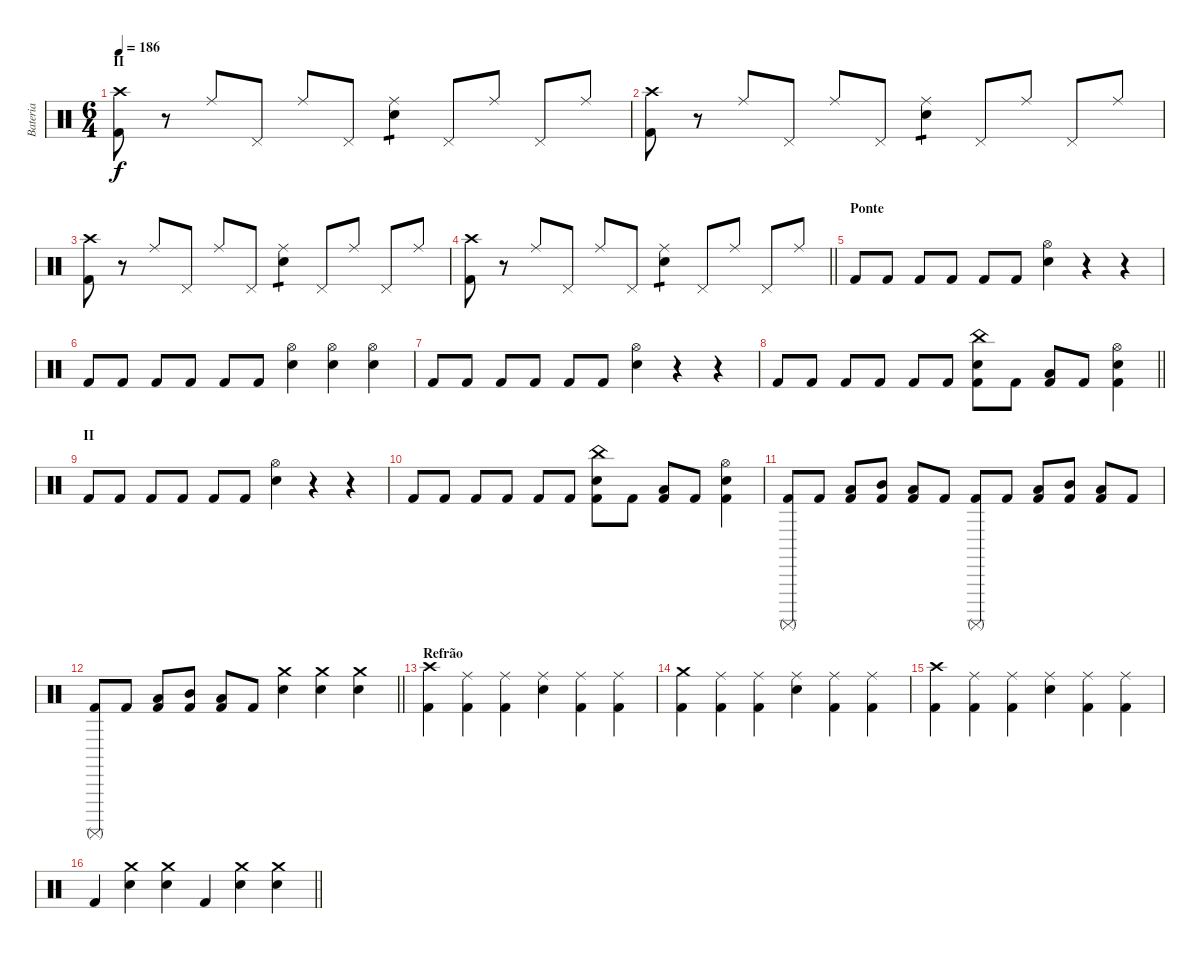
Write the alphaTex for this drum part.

\track ("Bateria" "Bateria") {instrument percussion}
\staff {score}
\articulation defaults
\ts (6 4)
\section ("" "II")
\tempo 186
\clef neutral
\ks c
("Kick (hit) 2" "Crash high (hit)").8{dy f} r.8 "Ride (middle)".8 "Pedal Hi-Hat (hit)".8 "Ride (middle)".8 "Pedal Hi-Hat (hit)".8 ("Electric Snare (hit)" "Ride (middle)").4{tp 1} "Pedal Hi-Hat (hit)".8 "Ride (middle)".8 "Pedal Hi-Hat (hit)".8 "Ride (middle)".8 |
("Kick (hit) 2" "Crash high (hit)").8 r.8 "Ride (middle)".8 "Pedal Hi-Hat (hit)".8 "Ride (middle)".8 "Pedal Hi-Hat (hit)".8 ("Electric Snare (hit)" "Ride (middle)").4{tp 1} "Pedal Hi-Hat (hit)".8 "Ride (middle)".8 "Pedal Hi-Hat (hit)".8 "Ride (middle)".8 |
("Kick (hit) 2" "Crash high (hit)").8 r.8 "Ride (middle)".8 "Pedal Hi-Hat (hit)".8 "Ride (middle)".8 "Pedal Hi-Hat (hit)".8 ("Electric Snare (hit)" "Ride (middle)").4{tp 1} "Pedal Hi-Hat (hit)".8 "Ride (middle)".8 "Pedal Hi-Hat (hit)".8 "Ride (middle)".8 |
\barLineRight lightlight
("Kick (hit) 2" "Crash high (hit)").8 r.8 "Ride (middle)".8 "Pedal Hi-Hat (hit)".8 "Ride (middle)".8 "Pedal Hi-Hat (hit)".8 ("Electric Snare (hit)" "Ride (middle)").4{tp 1} "Pedal Hi-Hat (hit)".8 "Ride (middle)".8 "Pedal Hi-Hat (hit)".8 "Ride (middle)".8 |
\section ("" "Ponte")
"Kick (hit) 2".8 "Kick (hit) 2".8 "Kick (hit) 2".8 "Kick (hit) 2".8 "Kick (hit) 2".8 "Kick (hit) 2".8 ("Electric Snare (hit)" "Hi-Hat (open)").4 r.4 r.4 |
"Kick (hit) 2".8 "Kick (hit) 2".8 "Kick (hit) 2".8 "Kick (hit) 2".8 "Kick (hit) 2".8 "Kick (hit) 2".8 ("Electric Snare (hit)" "Hi-Hat (open)").4 ("Electric Snare (hit)" "Hi-Hat (open)").4 ("Electric Snare (hit)" "Hi-Hat (open)").4 |
"Kick (hit) 2".8 "Kick (hit) 2".8 "Kick (hit) 2".8 "Kick (hit) 2".8 "Kick (hit) 2".8 "Kick (hit) 2".8 ("Electric Snare (hit)" "Hi-Hat (open)").4 r.4 r.4 |
\barLineRight lightlight "Kick (hit) 2".8 "Kick (hit) 2".8 "Kick (hit) 2".8 "Kick (hit) 2".8 "Kick (hit) 2".8 "Kick (hit) 2".8
("Kick (hit) 2" "Electric Snare (hit)" "China (hit)").8 "Kick (hit) 2".8 ("Kick (hit) 2" "Low Tom (hit)").8 "Kick (hit) 2".8 ("Kick (hit) 2" "Electric Snare (hit)" "Hi-Hat (open)").4 |
\section ("" "II")
"Kick (hit) 2".8 "Kick (hit) 2".8 "Kick (hit) 2".8 "Kick (hit) 2".8 "Kick (hit) 2".8 "Kick (hit) 2".8 ("Electric Snare (hit)" "Hi-Hat (open)").4 r.4 r.4 |
"Kick (hit) 2".8 "Kick (hit) 2".8 "Kick (hit) 2".8 "Kick (hit) 2".8 "Kick (hit) 2".8 "Kick (hit) 2".8 ("Kick (hit) 2" "Electric Snare (hit)" "China (hit)").8 "Kick (hit) 2".8 ("Kick (hit) 2" "Low Tom (hit)").8 "Kick (hit) 2".8 ("Kick (hit) 2" "Electric Snare (hit)" "Hi-Hat (open)").4 |
("Kick (hit) 2" "Surdo (mute)").8 "Kick (hit) 2".8 ("Kick (hit) 2" "Low Tom (hit)").8 ("Kick (hit) 2" "Mid Tom (hit)").8 ("Kick (hit) 2" "Low Tom (hit)").8 "Kick (hit) 2".8 ("Kick (hit) 2" "Surdo (mute)").8 "Kick (hit) 2".8 ("Kick (hit) 2" "Low Tom (hit)").8 ("Kick (hit) 2" "Mid Tom (hit)").8 ("Kick (hit) 2" "Low Tom (hit)").8 "Kick (hit) 2".8 |
\barLineRight lightlight
("Kick (hit) 2" "Surdo (mute)").8 "Kick (hit) 2".8 ("Kick (hit) 2" "Low Tom (hit)").8 ("Kick (hit) 2" "Mid Tom (hit)").8 ("Kick (hit) 2" "Low Tom (hit)").8 "Kick (hit) 2".8 ("Electric Snare (hit)" "Crash medium (hit)").4 ("Electric Snare (hit)" "Crash medium (hit)").4 ("Electric Snare (hit)" "Crash medium (hit)").4 |
\section ("" "Refrão")
("Kick (hit) 2" "Crash high (hit)").4 ("Kick (hit) 2" "Ride (middle)").4 ("Kick (hit) 2" "Ride (middle)").4 ("Electric Snare (hit)" "Ride (middle)").4 ("Kick (hit) 2" "Ride (middle)").4 ("Kick (hit) 2" "Ride (middle)").4 |
("Kick (hit) 2" "Crash medium (hit)").4 ("Kick (hit) 2" "Ride (middle)").4 ("Kick (hit) 2" "Ride (middle)").4 ("Electric Snare (hit)" "Ride (middle)").4 ("Kick (hit) 2" "Ride (middle)").4 ("Kick (hit) 2" "Ride (middle)").4 |
("Kick (hit) 2" "Crash high (hit)").4 ("Kick (hit) 2" "Ride (middle)").4 ("Kick (hit) 2" "Ride (middle)").4 ("Electric Snare (hit)" "Ride (middle)").4 ("Kick (hit) 2" "Ride (middle)").4 ("Kick (hit) 2" "Ride (middle)").4 |
\barLineRight lightlight "Kick (hit) 2".4
("Electric Snare (hit)" "Crash medium (hit)").4 ("Electric Snare (hit)" "Crash medium (hit)").4 "Kick (hit) 2".4 ("Electric Snare (hit)" "Crash medium (hit)").4 ("Electric Snare (hit)" "Crash medium (hit)").4
